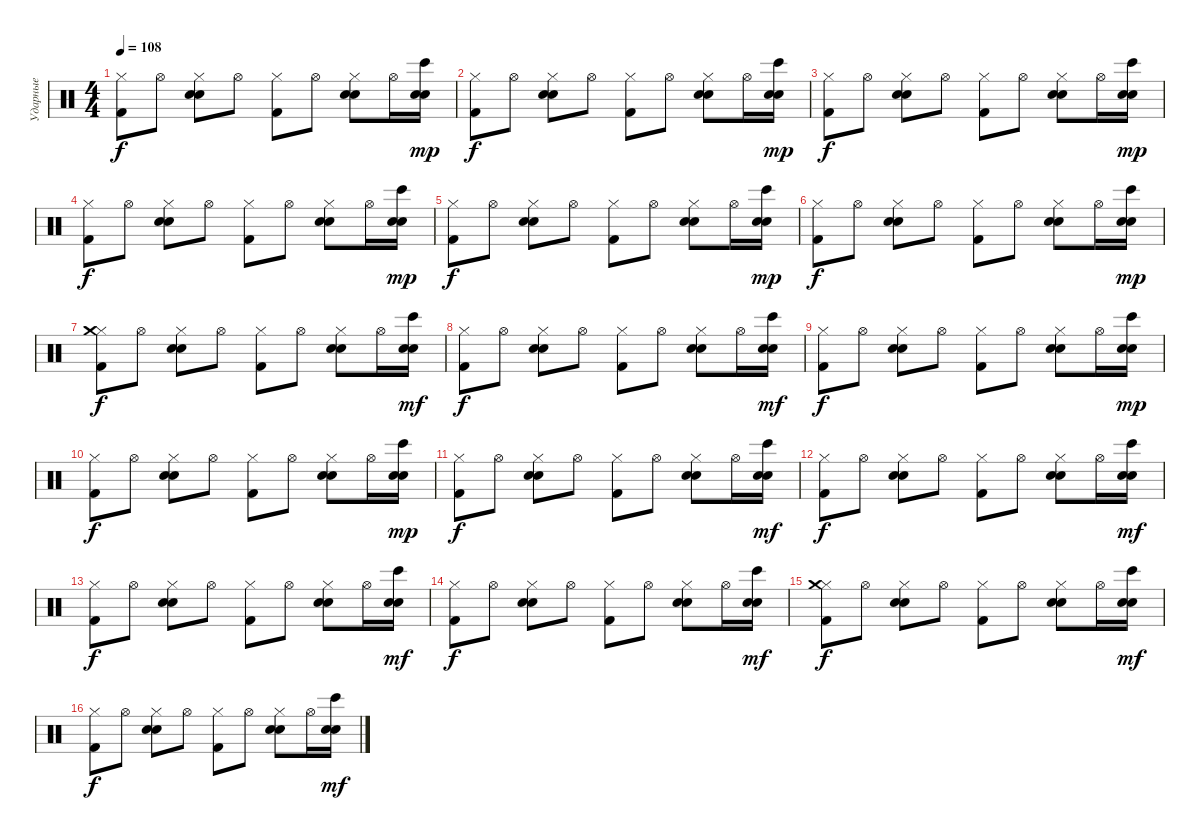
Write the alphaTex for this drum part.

\track ("Ударные" "Ударные") {instrument percussion}
\staff {score}
\articulation defaults
\ts (4 4)
\tempo 108
\clef neutral
\ks c
("Hi-Hat (closed)" "Kick (hit) 2").8{dy f} "Hi-Hat (open)".8 ("Hi-Hat (closed)" "Electric Snare (hit)" "Hand Clap (hit)").8 "Hi-Hat (open)".8 ("Hi-Hat (closed)" "Kick (hit) 2").8 "Hi-Hat (open)".8 ("Hi-Hat (closed)" "Electric Snare (hit)" "Hand Clap (hit)").8 "Hi-Hat (open)".16 ("Bongo High (hit)" "Electric Snare (hit)" "Hand Clap (hit)").16{dy mp} |
("Hi-Hat (closed)" "Kick (hit) 2").8{dy f} "Hi-Hat (open)".8 ("Hi-Hat (closed)" "Electric Snare (hit)" "Hand Clap (hit)").8 "Hi-Hat (open)".8 ("Hi-Hat (closed)" "Kick (hit) 2").8 "Hi-Hat (open)".8 ("Hi-Hat (closed)" "Electric Snare (hit)" "Hand Clap (hit)").8 "Hi-Hat (open)".16 ("Bongo High (hit)" "Electric Snare (hit)" "Hand Clap (hit)").16{dy mp} |
("Hi-Hat (closed)" "Kick (hit) 2").8{dy f} "Hi-Hat (open)".8 ("Hi-Hat (closed)" "Electric Snare (hit)" "Hand Clap (hit)").8 "Hi-Hat (open)".8 ("Hi-Hat (closed)" "Kick (hit) 2").8 "Hi-Hat (open)".8 ("Hi-Hat (closed)" "Electric Snare (hit)" "Hand Clap (hit)").8 "Hi-Hat (open)".16 ("Bongo High (hit)" "Electric Snare (hit)" "Hand Clap (hit)").16{dy mp} |
("Hi-Hat (closed)" "Kick (hit) 2").8{dy f} "Hi-Hat (open)".8 ("Hi-Hat (closed)" "Electric Snare (hit)" "Hand Clap (hit)").8 "Hi-Hat (open)".8 ("Hi-Hat (closed)" "Kick (hit) 2").8 "Hi-Hat (open)".8 ("Hi-Hat (closed)" "Electric Snare (hit)" "Hand Clap (hit)").8 "Hi-Hat (open)".16 ("Bongo High (hit)" "Electric Snare (hit)" "Hand Clap (hit)").16{dy mp} |
("Hi-Hat (closed)" "Kick (hit) 2").8{dy f} "Hi-Hat (open)".8 ("Hi-Hat (closed)" "Electric Snare (hit)" "Hand Clap (hit)").8 "Hi-Hat (open)".8 ("Hi-Hat (closed)" "Kick (hit) 2").8 "Hi-Hat (open)".8 ("Hi-Hat (closed)" "Electric Snare (hit)" "Hand Clap (hit)").8 "Hi-Hat (open)".16 ("Bongo High (hit)" "Electric Snare (hit)" "Hand Clap (hit)").16{dy mp} |
("Hi-Hat (closed)" "Kick (hit) 2").8{dy f} "Hi-Hat (open)".8 ("Hi-Hat (closed)" "Electric Snare (hit)" "Hand Clap (hit)").8 "Hi-Hat (open)".8 ("Hi-Hat (closed)" "Kick (hit) 2").8 "Hi-Hat (open)".8 ("Hi-Hat (closed)" "Electric Snare (hit)" "Hand Clap (hit)").8 "Hi-Hat (open)".16 ("Bongo High (hit)" "Electric Snare (hit)" "Hand Clap (hit)").16{dy mp} |
("Hi-Hat (closed)" "Kick (hit) 2" "Crash medium (hit)").8{dy f} "Hi-Hat (open)".8 ("Hi-Hat (closed)" "Electric Snare (hit)" "Hand Clap (hit)").8 "Hi-Hat (open)".8 ("Hi-Hat (closed)" "Kick (hit) 2").8 "Hi-Hat (open)".8 ("Hi-Hat (closed)" "Electric Snare (hit)" "Hand Clap (hit)").8 "Hi-Hat (open)".16 ("Bongo High (hit)" "Electric Snare (hit)" "Hand Clap (hit)").16{dy mf} |
("Hi-Hat (closed)" "Kick (hit) 2").8{dy f} "Hi-Hat (open)".8 ("Hi-Hat (closed)" "Electric Snare (hit)" "Hand Clap (hit)").8 "Hi-Hat (open)".8 ("Hi-Hat (closed)" "Kick (hit) 2").8 "Hi-Hat (open)".8 ("Hi-Hat (closed)" "Electric Snare (hit)" "Hand Clap (hit)").8 "Hi-Hat (open)".16 ("Bongo High (hit)" "Electric Snare (hit)" "Hand Clap (hit)").16{dy mf} |
("Hi-Hat (closed)" "Kick (hit) 2").8{dy f} "Hi-Hat (open)".8 ("Hi-Hat (closed)" "Electric Snare (hit)" "Hand Clap (hit)").8 "Hi-Hat (open)".8 ("Hi-Hat (closed)" "Kick (hit) 2").8 "Hi-Hat (open)".8 ("Hi-Hat (closed)" "Electric Snare (hit)" "Hand Clap (hit)").8 "Hi-Hat (open)".16 ("Bongo High (hit)" "Electric Snare (hit)" "Hand Clap (hit)").16{dy mp} |
("Hi-Hat (closed)" "Kick (hit) 2").8{dy f} "Hi-Hat (open)".8 ("Hi-Hat (closed)" "Electric Snare (hit)" "Hand Clap (hit)").8 "Hi-Hat (open)".8 ("Hi-Hat (closed)" "Kick (hit) 2").8 "Hi-Hat (open)".8 ("Hi-Hat (closed)" "Electric Snare (hit)" "Hand Clap (hit)").8 "Hi-Hat (open)".16 ("Bongo High (hit)" "Electric Snare (hit)" "Hand Clap (hit)").16{dy mp} |
("Hi-Hat (closed)" "Kick (hit) 2").8{dy f} "Hi-Hat (open)".8 ("Hi-Hat (closed)" "Electric Snare (hit)" "Hand Clap (hit)").8 "Hi-Hat (open)".8 ("Hi-Hat (closed)" "Kick (hit) 2").8 "Hi-Hat (open)".8 ("Hi-Hat (closed)" "Electric Snare (hit)" "Hand Clap (hit)").8 "Hi-Hat (open)".16 ("Bongo High (hit)" "Electric Snare (hit)" "Hand Clap (hit)").16{dy mf} |
("Hi-Hat (closed)" "Kick (hit) 2").8{dy f} "Hi-Hat (open)".8 ("Hi-Hat (closed)" "Electric Snare (hit)" "Hand Clap (hit)").8 "Hi-Hat (open)".8 ("Hi-Hat (closed)" "Kick (hit) 2").8 "Hi-Hat (open)".8 ("Hi-Hat (closed)" "Electric Snare (hit)" "Hand Clap (hit)").8 "Hi-Hat (open)".16 ("Bongo High (hit)" "Electric Snare (hit)" "Hand Clap (hit)").16{dy mf} |
("Hi-Hat (closed)" "Kick (hit) 2").8{dy f} "Hi-Hat (open)".8 ("Hi-Hat (closed)" "Electric Snare (hit)" "Hand Clap (hit)").8 "Hi-Hat (open)".8 ("Hi-Hat (closed)" "Kick (hit) 2").8 "Hi-Hat (open)".8 ("Hi-Hat (closed)" "Electric Snare (hit)" "Hand Clap (hit)").8 "Hi-Hat (open)".16 ("Bongo High (hit)" "Electric Snare (hit)" "Hand Clap (hit)").16{dy mf} |
("Hi-Hat (closed)" "Kick (hit) 2").8{dy f} "Hi-Hat (open)".8 ("Hi-Hat (closed)" "Electric Snare (hit)" "Hand Clap (hit)").8 "Hi-Hat (open)".8 ("Hi-Hat (closed)" "Kick (hit) 2").8 "Hi-Hat (open)".8 ("Hi-Hat (closed)" "Electric Snare (hit)" "Hand Clap (hit)").8 "Hi-Hat (open)".16 ("Bongo High (hit)" "Electric Snare (hit)" "Hand Clap (hit)").16{dy mf} |
("Hi-Hat (closed)" "Kick (hit) 2" "Crash medium (hit)").8{dy f} "Hi-Hat (open)".8 ("Hi-Hat (closed)" "Electric Snare (hit)" "Hand Clap (hit)").8 "Hi-Hat (open)".8 ("Hi-Hat (closed)" "Kick (hit) 2").8 "Hi-Hat (open)".8 ("Hi-Hat (closed)" "Electric Snare (hit)" "Hand Clap (hit)").8 "Hi-Hat (open)".16 ("Bongo High (hit)" "Electric Snare (hit)" "Hand Clap (hit)").16{dy mf} |
("Hi-Hat (closed)" "Kick (hit) 2").8{dy f} "Hi-Hat (open)".8 ("Hi-Hat (closed)" "Electric Snare (hit)" "Hand Clap (hit)").8 "Hi-Hat (open)".8 ("Hi-Hat (closed)" "Kick (hit) 2").8 "Hi-Hat (open)".8 ("Hi-Hat (closed)" "Electric Snare (hit)" "Hand Clap (hit)").8 "Hi-Hat (open)".16 ("Bongo High (hit)" "Electric Snare (hit)" "Hand Clap (hit)").16{dy mf}
